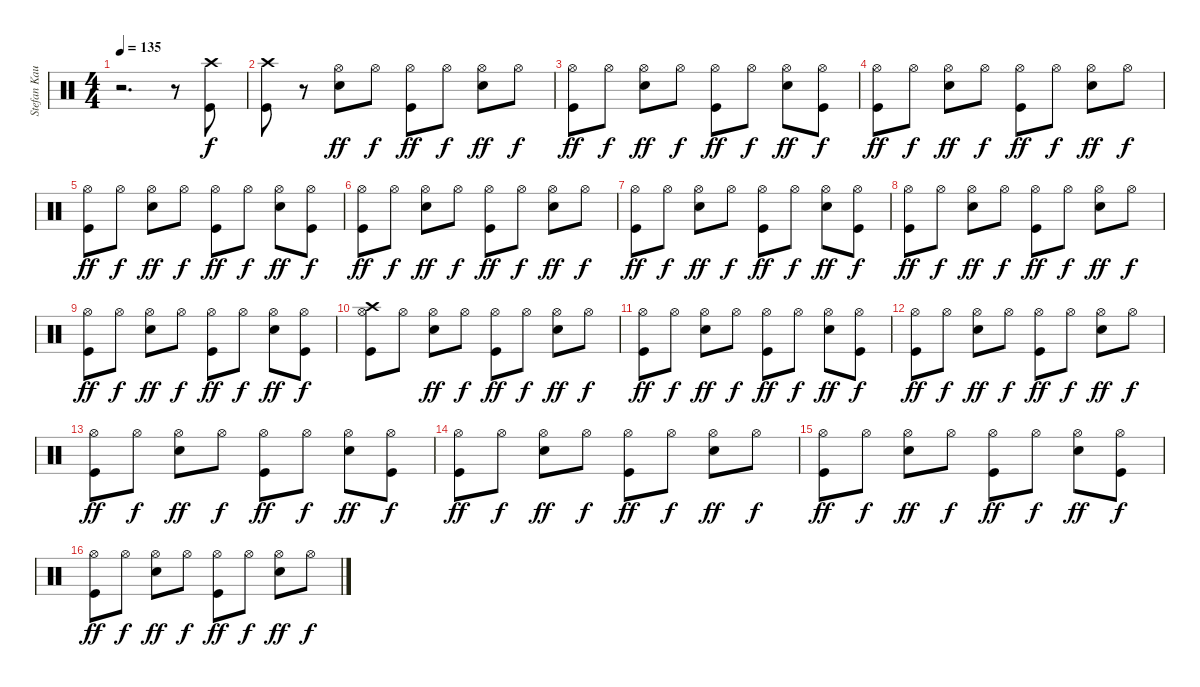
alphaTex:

\track ("Stefan Kaufmann" "Stefan Kau") {instrument percussion}
\staff {score}
\articulation defaults
\ts (4 4)
\tempo 135
\clef neutral
\ks c
r.2{d dy f} r.8 ("Crash high (hit)" "Kick (hit)").8 |
("Crash high (hit)" "Kick (hit)").8 r.8 ("Hi-Hat (open)" "Snare (hit) 2").8{dy ff} "Hi-Hat (open)".8{dy f} ("Hi-Hat (open)" "Kick (hit)").8{dy ff} "Hi-Hat (open)".8{dy f} ("Hi-Hat (open)" "Snare (hit) 2").8{dy ff} "Hi-Hat (open)".8{dy f} |
("Hi-Hat (open)" "Kick (hit)").8{dy ff} "Hi-Hat (open)".8{dy f} ("Hi-Hat (open)" "Snare (hit) 2").8{dy ff} "Hi-Hat (open)".8{dy f} ("Hi-Hat (open)" "Kick (hit)").8{dy ff} "Hi-Hat (open)".8{dy f} ("Hi-Hat (open)" "Snare (hit) 2").8{dy ff} ("Hi-Hat (open)" "Kick (hit)").8{dy f} |
("Hi-Hat (open)" "Kick (hit)").8{dy ff} "Hi-Hat (open)".8{dy f} ("Hi-Hat (open)" "Snare (hit) 2").8{dy ff} "Hi-Hat (open)".8{dy f} ("Hi-Hat (open)" "Kick (hit)").8{dy ff} "Hi-Hat (open)".8{dy f} ("Hi-Hat (open)" "Snare (hit) 2").8{dy ff} "Hi-Hat (open)".8{dy f} |
("Hi-Hat (open)" "Kick (hit)").8{dy ff} "Hi-Hat (open)".8{dy f} ("Hi-Hat (open)" "Snare (hit) 2").8{dy ff} "Hi-Hat (open)".8{dy f} ("Hi-Hat (open)" "Kick (hit)").8{dy ff} "Hi-Hat (open)".8{dy f} ("Hi-Hat (open)" "Snare (hit) 2").8{dy ff} ("Hi-Hat (open)" "Kick (hit)").8{dy f} |
("Hi-Hat (open)" "Kick (hit)").8{dy ff} "Hi-Hat (open)".8{dy f} ("Hi-Hat (open)" "Snare (hit) 2").8{dy ff} "Hi-Hat (open)".8{dy f} ("Hi-Hat (open)" "Kick (hit)").8{dy ff} "Hi-Hat (open)".8{dy f} ("Hi-Hat (open)" "Snare (hit) 2").8{dy ff} "Hi-Hat (open)".8{dy f} |
("Hi-Hat (open)" "Kick (hit)").8{dy ff} "Hi-Hat (open)".8{dy f} ("Hi-Hat (open)" "Snare (hit) 2").8{dy ff} "Hi-Hat (open)".8{dy f} ("Hi-Hat (open)" "Kick (hit)").8{dy ff} "Hi-Hat (open)".8{dy f} ("Hi-Hat (open)" "Snare (hit) 2").8{dy ff} ("Hi-Hat (open)" "Kick (hit)").8{dy f} |
("Hi-Hat (open)" "Kick (hit)").8{dy ff} "Hi-Hat (open)".8{dy f} ("Hi-Hat (open)" "Snare (hit) 2").8{dy ff} "Hi-Hat (open)".8{dy f} ("Hi-Hat (open)" "Kick (hit)").8{dy ff} "Hi-Hat (open)".8{dy f} ("Hi-Hat (open)" "Snare (hit) 2").8{dy ff} "Hi-Hat (open)".8{dy f} |
("Hi-Hat (open)" "Kick (hit)").8{dy ff} "Hi-Hat (open)".8{dy f} ("Hi-Hat (open)" "Snare (hit) 2").8{dy ff} "Hi-Hat (open)".8{dy f} ("Hi-Hat (open)" "Kick (hit)").8{dy ff} "Hi-Hat (open)".8{dy f} ("Hi-Hat (open)" "Snare (hit) 2").8{dy ff} ("Hi-Hat (open)" "Kick (hit)").8{dy f} |
("Crash high (hit)" "Kick (hit)" "Hi-Hat (open)").8 "Hi-Hat (open)".8 ("Hi-Hat (open)" "Snare (hit) 2").8{dy ff} "Hi-Hat (open)".8{dy f} ("Hi-Hat (open)" "Kick (hit)").8{dy ff} "Hi-Hat (open)".8{dy f} ("Hi-Hat (open)" "Snare (hit) 2").8{dy ff} "Hi-Hat (open)".8{dy f} |
("Hi-Hat (open)" "Kick (hit)").8{dy ff} "Hi-Hat (open)".8{dy f} ("Hi-Hat (open)" "Snare (hit) 2").8{dy ff} "Hi-Hat (open)".8{dy f} ("Hi-Hat (open)" "Kick (hit)").8{dy ff} "Hi-Hat (open)".8{dy f} ("Hi-Hat (open)" "Snare (hit) 2").8{dy ff} ("Hi-Hat (open)" "Kick (hit)").8{dy f} |
("Hi-Hat (open)" "Kick (hit)").8{dy ff} "Hi-Hat (open)".8{dy f} ("Hi-Hat (open)" "Snare (hit) 2").8{dy ff} "Hi-Hat (open)".8{dy f} ("Hi-Hat (open)" "Kick (hit)").8{dy ff} "Hi-Hat (open)".8{dy f} ("Hi-Hat (open)" "Snare (hit) 2").8{dy ff} "Hi-Hat (open)".8{dy f} |
("Hi-Hat (open)" "Kick (hit)").8{dy ff} "Hi-Hat (open)".8{dy f} ("Hi-Hat (open)" "Snare (hit) 2").8{dy ff} "Hi-Hat (open)".8{dy f} ("Hi-Hat (open)" "Kick (hit)").8{dy ff} "Hi-Hat (open)".8{dy f} ("Hi-Hat (open)" "Snare (hit) 2").8{dy ff} ("Hi-Hat (open)" "Kick (hit)").8{dy f} |
("Hi-Hat (open)" "Kick (hit)").8{dy ff} "Hi-Hat (open)".8{dy f} ("Hi-Hat (open)" "Snare (hit) 2").8{dy ff} "Hi-Hat (open)".8{dy f} ("Hi-Hat (open)" "Kick (hit)").8{dy ff} "Hi-Hat (open)".8{dy f} ("Hi-Hat (open)" "Snare (hit) 2").8{dy ff} "Hi-Hat (open)".8{dy f} |
("Hi-Hat (open)" "Kick (hit)").8{dy ff} "Hi-Hat (open)".8{dy f} ("Hi-Hat (open)" "Snare (hit) 2").8{dy ff} "Hi-Hat (open)".8{dy f} ("Hi-Hat (open)" "Kick (hit)").8{dy ff} "Hi-Hat (open)".8{dy f} ("Hi-Hat (open)" "Snare (hit) 2").8{dy ff} ("Hi-Hat (open)" "Kick (hit)").8{dy f} |
("Hi-Hat (open)" "Kick (hit)").8{dy ff} "Hi-Hat (open)".8{dy f} ("Hi-Hat (open)" "Snare (hit) 2").8{dy ff} "Hi-Hat (open)".8{dy f} ("Hi-Hat (open)" "Kick (hit)").8{dy ff} "Hi-Hat (open)".8{dy f} ("Hi-Hat (open)" "Snare (hit) 2").8{dy ff} "Hi-Hat (open)".8{dy f}
